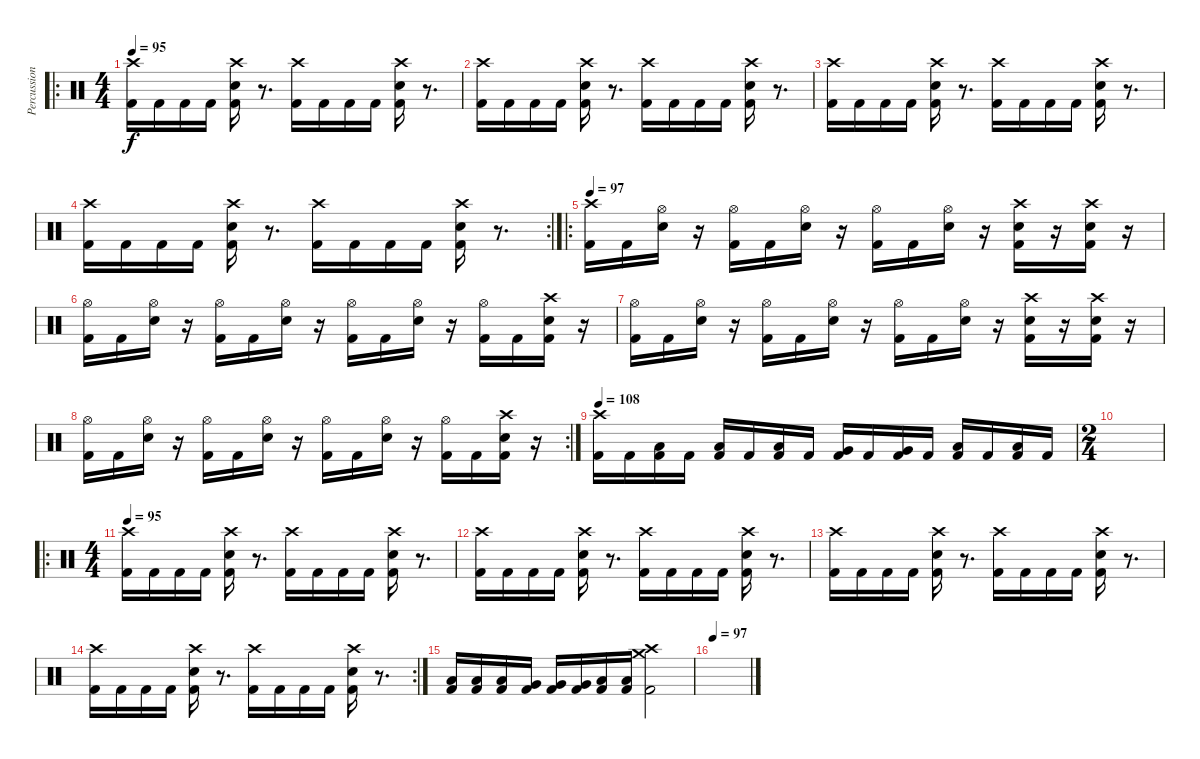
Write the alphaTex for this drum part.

\track ("Percussion" "Percussion") {instrument percussion}
\staff {score}
\articulation defaults
\ro
\ts (4 4)
\tempo 95
\clef neutral
\ks c
("Crash high (hit)" "Kick (hit) 2").16{dy f} "Kick (hit) 2".16 "Kick (hit) 2".16 "Kick (hit) 2".16 ("Crash high (hit)" "Snare (hit) 2" "Kick (hit) 2").16 r.8{d} ("Crash high (hit)" "Kick (hit) 2").16 "Kick (hit) 2".16 "Kick (hit) 2".16 "Kick (hit) 2".16 ("Crash high (hit)" "Snare (hit) 2" "Kick (hit) 2").16 r.8{d} |
("Crash high (hit)" "Kick (hit) 2").16 "Kick (hit) 2".16 "Kick (hit) 2".16 "Kick (hit) 2".16 ("Crash high (hit)" "Snare (hit) 2" "Kick (hit) 2").16 r.8{d} ("Crash high (hit)" "Kick (hit) 2").16 "Kick (hit) 2".16 "Kick (hit) 2".16 "Kick (hit) 2".16 ("Crash high (hit)" "Snare (hit) 2" "Kick (hit) 2").16 r.8{d} |
("Crash high (hit)" "Kick (hit) 2").16 "Kick (hit) 2".16 "Kick (hit) 2".16 "Kick (hit) 2".16 ("Crash high (hit)" "Snare (hit) 2" "Kick (hit) 2").16 r.8{d} ("Crash high (hit)" "Kick (hit) 2").16 "Kick (hit) 2".16 "Kick (hit) 2".16 "Kick (hit) 2".16 ("Crash high (hit)" "Snare (hit) 2" "Kick (hit) 2").16 r.8{d} |
\rc 2
("Crash high (hit)" "Kick (hit) 2").16 "Kick (hit) 2".16 "Kick (hit) 2".16 "Kick (hit) 2".16 ("Crash high (hit)" "Snare (hit) 2" "Kick (hit) 2").16 r.8{d} ("Crash high (hit)" "Kick (hit) 2").16 "Kick (hit) 2".16 "Kick (hit) 2".16 "Kick (hit) 2".16 ("Crash high (hit)" "Snare (hit) 2" "Kick (hit) 2").16 r.8{d} |
\ro
\tempo 97
("Crash high (hit)" "Kick (hit) 2").16 "Kick (hit) 2".16 ("Hi-Hat (open)" "Snare (hit) 2").16 r.16 ("Hi-Hat (open)" "Kick (hit) 2").16 "Kick (hit) 2".16 ("Hi-Hat (open)" "Snare (hit) 2").16 r.16 ("Hi-Hat (open)" "Kick (hit) 2").16 "Kick (hit) 2".16 ("Hi-Hat (open)" "Snare (hit) 2").16 r.16 ("Crash high (hit)" "Snare (hit) 2" "Kick (hit) 2").16 r.16 ("Crash high (hit)" "Snare (hit) 2" "Kick (hit) 2").16 r.16 |
("Hi-Hat (open)" "Kick (hit) 2").16 "Kick (hit) 2".16 ("Hi-Hat (open)" "Snare (hit) 2").16 r.16 ("Hi-Hat (open)" "Kick (hit) 2").16 "Kick (hit) 2".16 ("Hi-Hat (open)" "Snare (hit) 2").16 r.16 ("Hi-Hat (open)" "Kick (hit) 2").16 "Kick (hit) 2".16 ("Hi-Hat (open)" "Snare (hit) 2").16 r.16 ("Hi-Hat (open)" "Kick (hit) 2").16 "Kick (hit) 2".16 ("Crash high (hit)" "Snare (hit) 2" "Kick (hit) 2").16 r.16 |
("Hi-Hat (open)" "Kick (hit) 2").16 "Kick (hit) 2".16 ("Hi-Hat (open)" "Snare (hit) 2").16 r.16 ("Hi-Hat (open)" "Kick (hit) 2").16 "Kick (hit) 2".16 ("Hi-Hat (open)" "Snare (hit) 2").16 r.16 ("Hi-Hat (open)" "Kick (hit) 2").16 "Kick (hit) 2".16 ("Hi-Hat (open)" "Snare (hit) 2").16 r.16 ("Crash high (hit)" "Snare (hit) 2" "Kick (hit) 2").16 r.16 ("Crash high (hit)" "Snare (hit) 2" "Kick (hit) 2").16 r.16 |
\rc 2
("Hi-Hat (open)" "Kick (hit) 2").16 "Kick (hit) 2".16 ("Hi-Hat (open)" "Snare (hit) 2").16 r.16 ("Hi-Hat (open)" "Kick (hit) 2").16 "Kick (hit) 2".16 ("Hi-Hat (open)" "Snare (hit) 2").16 r.16 ("Hi-Hat (open)" "Kick (hit) 2").16 "Kick (hit) 2".16 ("Hi-Hat (open)" "Snare (hit) 2").16 r.16 ("Hi-Hat (open)" "Kick (hit) 2").16 "Kick (hit) 2".16 ("Crash high (hit)" "Snare (hit) 2" "Kick (hit) 2").16 r.16 |
\tempo 108
("Kick (hit) 2" "Crash high (hit)").16 "Kick (hit) 2".16 ("Kick (hit) 2" "Low Tom (hit)").16 "Kick (hit) 2".16 ("Kick (hit) 2" "Low Tom (hit)").16 "Kick (hit) 2".16 ("Kick (hit) 2" "Low Tom (hit)").16 "Kick (hit) 2".16 ("Kick (hit) 2" "Very Low Tom (hit)").16 "Kick (hit) 2".16 ("Kick (hit) 2" "Very Low Tom (hit)").16 "Kick (hit) 2".16 ("Kick (hit) 2" "Low Floor Tom (hit)").16 "Kick (hit) 2".16 ("Kick (hit) 2" "Low Floor Tom (hit)").16 "Kick (hit) 2".16 |
\ts (2 4)
|
\ro
\ts (4 4)
\tempo 95
("Crash high (hit)" "Kick (hit) 2").16 "Kick (hit) 2".16 "Kick (hit) 2".16 "Kick (hit) 2".16 ("Crash high (hit)" "Snare (hit) 2" "Kick (hit) 2").16 r.8{d} ("Crash high (hit)" "Kick (hit) 2").16 "Kick (hit) 2".16 "Kick (hit) 2".16 "Kick (hit) 2".16 ("Crash high (hit)" "Snare (hit) 2" "Kick (hit) 2").16 r.8{d} |
("Crash high (hit)" "Kick (hit) 2").16 "Kick (hit) 2".16 "Kick (hit) 2".16 "Kick (hit) 2".16 ("Crash high (hit)" "Snare (hit) 2" "Kick (hit) 2").16 r.8{d} ("Crash high (hit)" "Kick (hit) 2").16 "Kick (hit) 2".16 "Kick (hit) 2".16 "Kick (hit) 2".16 ("Crash high (hit)" "Snare (hit) 2" "Kick (hit) 2").16 r.8{d} |
("Crash high (hit)" "Kick (hit) 2").16 "Kick (hit) 2".16 "Kick (hit) 2".16 "Kick (hit) 2".16 ("Crash high (hit)" "Snare (hit) 2" "Kick (hit) 2").16 r.8{d} ("Crash high (hit)" "Kick (hit) 2").16 "Kick (hit) 2".16 "Kick (hit) 2".16 "Kick (hit) 2".16 ("Crash high (hit)" "Snare (hit) 2" "Kick (hit) 2").16 r.8{d} |
\rc 2
("Crash high (hit)" "Kick (hit) 2").16 "Kick (hit) 2".16 "Kick (hit) 2".16 "Kick (hit) 2".16 ("Crash high (hit)" "Snare (hit) 2" "Kick (hit) 2").16 r.8{d} ("Crash high (hit)" "Kick (hit) 2").16 "Kick (hit) 2".16 "Kick (hit) 2".16 "Kick (hit) 2".16 ("Crash high (hit)" "Snare (hit) 2" "Kick (hit) 2").16 r.8{d} |
("Low Tom (hit)" "Kick (hit) 2").16 ("Low Tom (hit)" "Kick (hit) 2").16 ("Low Tom (hit)" "Kick (hit) 2").16 ("Very Low Tom (hit)" "Kick (hit) 2").16 ("Very Low Tom (hit)" "Kick (hit) 2").16 ("Very Low Tom (hit)" "Kick (hit) 2").16 ("Low Floor Tom (hit)" "Kick (hit) 2").16 ("Low Floor Tom (hit)" "Kick (hit) 2").16 ("Crash medium (hit)" "Crash high (hit)" "Kick (hit) 2").2 |
\tempo 97
